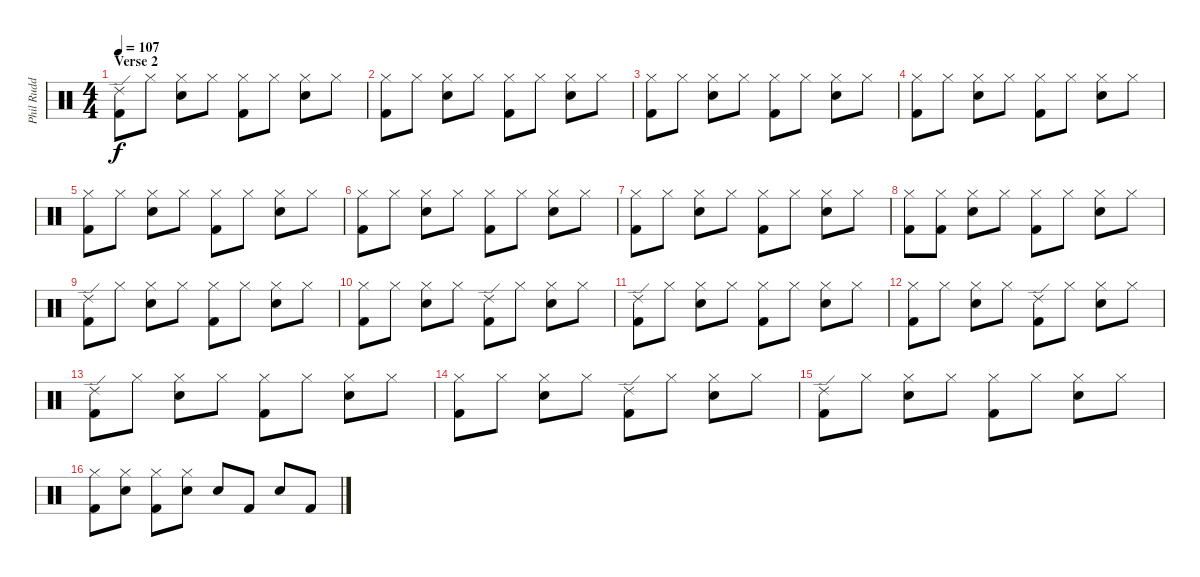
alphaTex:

\track ("Phil Rudd" "Phil Rudd") {instrument percussion}
\staff {score}
\articulation defaults
\ts (4 4)
\section ("" "Verse 2")
\tempo 107
\clef neutral
\ks c
("Kick (hit) 2" "Ride (edge) 2").8{dy f} "Hi-Hat (closed)".8 ("Hi-Hat (closed)" "Snare (hit) 2").8 "Hi-Hat (closed)".8 ("Hi-Hat (closed)" "Kick (hit) 2").8 "Hi-Hat (closed)".8 ("Hi-Hat (closed)" "Snare (hit) 2").8 "Hi-Hat (closed)".8 |
("Hi-Hat (closed)" "Kick (hit) 2").8 "Hi-Hat (closed)".8 ("Hi-Hat (closed)" "Snare (hit) 2").8 "Hi-Hat (closed)".8 ("Hi-Hat (closed)" "Kick (hit) 2").8 "Hi-Hat (closed)".8 ("Hi-Hat (closed)" "Snare (hit) 2").8 "Hi-Hat (closed)".8 |
("Hi-Hat (closed)" "Kick (hit) 2").8 "Hi-Hat (closed)".8 ("Hi-Hat (closed)" "Snare (hit) 2").8 "Hi-Hat (closed)".8 ("Hi-Hat (closed)" "Kick (hit) 2").8 "Hi-Hat (closed)".8 ("Hi-Hat (closed)" "Snare (hit) 2").8 "Hi-Hat (closed)".8 |
("Hi-Hat (closed)" "Kick (hit) 2").8 "Hi-Hat (closed)".8 ("Hi-Hat (closed)" "Snare (hit) 2").8 "Hi-Hat (closed)".8 ("Hi-Hat (closed)" "Kick (hit) 2").8 "Hi-Hat (closed)".8 ("Hi-Hat (closed)" "Snare (hit) 2").8 "Hi-Hat (closed)".8 |
("Hi-Hat (closed)" "Kick (hit) 2").8 "Hi-Hat (closed)".8 ("Hi-Hat (closed)" "Snare (hit) 2").8 "Hi-Hat (closed)".8 ("Hi-Hat (closed)" "Kick (hit) 2").8 "Hi-Hat (closed)".8 ("Hi-Hat (closed)" "Snare (hit) 2").8 "Hi-Hat (closed)".8 |
("Hi-Hat (closed)" "Kick (hit) 2").8 "Hi-Hat (closed)".8 ("Hi-Hat (closed)" "Snare (hit) 2").8 "Hi-Hat (closed)".8 ("Hi-Hat (closed)" "Kick (hit) 2").8 "Hi-Hat (closed)".8 ("Hi-Hat (closed)" "Snare (hit) 2").8 "Hi-Hat (closed)".8 |
("Hi-Hat (closed)" "Kick (hit) 2").8 "Hi-Hat (closed)".8 ("Hi-Hat (closed)" "Snare (hit) 2").8 "Hi-Hat (closed)".8 ("Hi-Hat (closed)" "Kick (hit) 2").8 "Hi-Hat (closed)".8 ("Hi-Hat (closed)" "Snare (hit) 2").8 "Hi-Hat (closed)".8 |
("Hi-Hat (closed)" "Kick (hit) 2").8 ("Hi-Hat (closed)" "Kick (hit) 2").8 ("Hi-Hat (closed)" "Snare (hit) 2").8 "Hi-Hat (closed)".8 ("Hi-Hat (closed)" "Kick (hit) 2").8 "Hi-Hat (closed)".8 ("Hi-Hat (closed)" "Snare (hit) 2").8 "Hi-Hat (closed)".8 |
("Kick (hit) 2" "Ride (edge) 2").8 "Hi-Hat (closed)".8 ("Hi-Hat (closed)" "Snare (hit) 2").8 "Hi-Hat (closed)".8 ("Hi-Hat (closed)" "Kick (hit) 2").8 "Hi-Hat (closed)".8 ("Hi-Hat (closed)" "Snare (hit) 2").8 "Hi-Hat (closed)".8 |
("Hi-Hat (closed)" "Kick (hit) 2").8 "Hi-Hat (closed)".8 ("Hi-Hat (closed)" "Snare (hit) 2").8 "Hi-Hat (closed)".8 ("Kick (hit) 2" "Ride (edge) 2").8 "Hi-Hat (closed)".8 ("Hi-Hat (closed)" "Snare (hit) 2").8 "Hi-Hat (closed)".8 |
("Kick (hit) 2" "Ride (edge) 2").8 "Hi-Hat (closed)".8 ("Hi-Hat (closed)" "Snare (hit) 2").8 "Hi-Hat (closed)".8 ("Hi-Hat (closed)" "Kick (hit) 2").8 "Hi-Hat (closed)".8 ("Hi-Hat (closed)" "Snare (hit) 2").8 "Hi-Hat (closed)".8 |
("Hi-Hat (closed)" "Kick (hit) 2").8 "Hi-Hat (closed)".8 ("Hi-Hat (closed)" "Snare (hit) 2").8 "Hi-Hat (closed)".8 ("Kick (hit) 2" "Ride (edge) 2").8 "Hi-Hat (closed)".8 ("Hi-Hat (closed)" "Snare (hit) 2").8 "Hi-Hat (closed)".8 |
("Kick (hit) 2" "Ride (edge) 2").8 "Hi-Hat (closed)".8 ("Hi-Hat (closed)" "Snare (hit) 2").8 "Hi-Hat (closed)".8 ("Hi-Hat (closed)" "Kick (hit) 2").8 "Hi-Hat (closed)".8 ("Hi-Hat (closed)" "Snare (hit) 2").8 "Hi-Hat (closed)".8 |
("Hi-Hat (closed)" "Kick (hit) 2").8 "Hi-Hat (closed)".8 ("Hi-Hat (closed)" "Snare (hit) 2").8 "Hi-Hat (closed)".8 ("Kick (hit) 2" "Ride (edge) 2").8 "Hi-Hat (closed)".8 ("Hi-Hat (closed)" "Snare (hit) 2").8 "Hi-Hat (closed)".8 |
("Kick (hit) 2" "Ride (edge) 2").8 "Hi-Hat (closed)".8 ("Hi-Hat (closed)" "Snare (hit) 2").8 "Hi-Hat (closed)".8 ("Hi-Hat (closed)" "Kick (hit) 2").8 "Hi-Hat (closed)".8 ("Hi-Hat (closed)" "Snare (hit) 2").8 "Hi-Hat (closed)".8 |
("Hi-Hat (closed)" "Kick (hit) 2").8 ("Hi-Hat (closed)" "Snare (hit) 2").8 ("Hi-Hat (closed)" "Kick (hit) 2").8 ("Hi-Hat (closed)" "Snare (hit) 2").8 "Snare (hit) 2".8 "Kick (hit) 2".8 "Snare (hit) 2".8 "Kick (hit) 2".8
